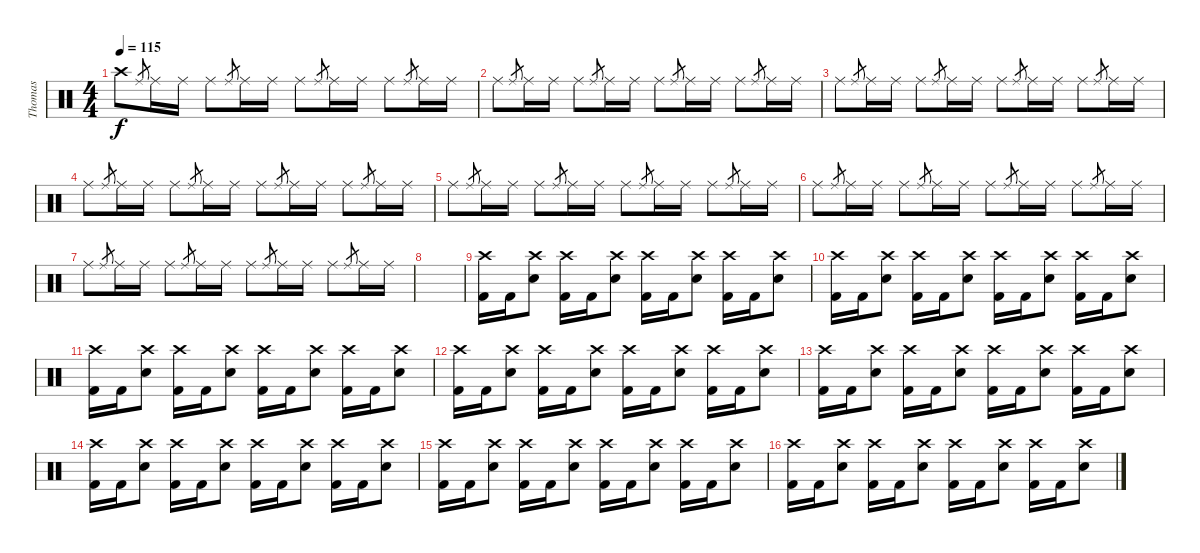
\track ("Thomas" "Thomas") {instrument percussion}
\staff {score}
\articulation defaults
\ts (4 4)
\tempo 115
\clef neutral
\ks c "Crash high (hit)".8{dy f} "Ride (middle)".8{gr} "Ride (middle)".16 "Ride (middle)".16 "Ride (middle)".8 "Ride (middle)".8{gr} "Ride (middle)".16 "Ride (middle)".16 "Ride (middle)".8 "Ride (middle)".8{gr} "Ride (middle)".16 "Ride (middle)".16 "Ride (middle)".8 "Ride (middle)".8{gr} "Ride (middle)".16 "Ride (middle)".16
|
"Ride (middle)".8 "Ride (middle)".8{gr} "Ride (middle)".16 "Ride (middle)".16 "Ride (middle)".8 "Ride (middle)".8{gr} "Ride (middle)".16 "Ride (middle)".16 "Ride (middle)".8 "Ride (middle)".8{gr} "Ride (middle)".16 "Ride (middle)".16 "Ride (middle)".8 "Ride (middle)".8{gr} "Ride (middle)".16 "Ride (middle)".16 |
"Ride (middle)".8 "Ride (middle)".8{gr} "Ride (middle)".16 "Ride (middle)".16 "Ride (middle)".8 "Ride (middle)".8{gr} "Ride (middle)".16 "Ride (middle)".16 "Ride (middle)".8 "Ride (middle)".8{gr} "Ride (middle)".16 "Ride (middle)".16 "Ride (middle)".8 "Ride (middle)".8{gr} "Ride (middle)".16 "Ride (middle)".16 |
"Ride (middle)".8 "Ride (middle)".8{gr} "Ride (middle)".16 "Ride (middle)".16 "Ride (middle)".8 "Ride (middle)".8{gr} "Ride (middle)".16 "Ride (middle)".16 "Ride (middle)".8 "Ride (middle)".8{gr} "Ride (middle)".16 "Ride (middle)".16 "Ride (middle)".8 "Ride (middle)".8{gr} "Ride (middle)".16 "Ride (middle)".16 |
"Ride (middle)".8 "Ride (middle)".8{gr} "Ride (middle)".16 "Ride (middle)".16 "Ride (middle)".8 "Ride (middle)".8{gr} "Ride (middle)".16 "Ride (middle)".16 "Ride (middle)".8 "Ride (middle)".8{gr} "Ride (middle)".16 "Ride (middle)".16 "Ride (middle)".8 "Ride (middle)".8{gr} "Ride (middle)".16 "Ride (middle)".16 |
"Ride (middle)".8 "Ride (middle)".8{gr} "Ride (middle)".16 "Ride (middle)".16 "Ride (middle)".8 "Ride (middle)".8{gr} "Ride (middle)".16 "Ride (middle)".16 "Ride (middle)".8 "Ride (middle)".8{gr} "Ride (middle)".16 "Ride (middle)".16 "Ride (middle)".8 "Ride (middle)".8{gr} "Ride (middle)".16 "Ride (middle)".16 |
"Ride (middle)".8 "Ride (middle)".8{gr} "Ride (middle)".16 "Ride (middle)".16 "Ride (middle)".8 "Ride (middle)".8{gr} "Ride (middle)".16 "Ride (middle)".16 "Ride (middle)".8 "Ride (middle)".8{gr} "Ride (middle)".16 "Ride (middle)".16 "Ride (middle)".8 "Ride (middle)".8{gr} "Ride (middle)".16 "Ride (middle)".16 |
|
("Crash high (hit)" "Kick (hit) 2").16 "Kick (hit) 2".16 ("Crash high (hit)" "Electric Snare (hit)").8 ("Crash high (hit)" "Kick (hit) 2").16 "Kick (hit) 2".16 ("Crash high (hit)" "Electric Snare (hit)").8 ("Crash high (hit)" "Kick (hit) 2").16 "Kick (hit) 2".16 ("Crash high (hit)" "Electric Snare (hit)").8 ("Crash high (hit)" "Kick (hit) 2").16 "Kick (hit) 2".16 ("Crash high (hit)" "Electric Snare (hit)").8 |
("Crash high (hit)" "Kick (hit) 2").16 "Kick (hit) 2".16 ("Crash high (hit)" "Electric Snare (hit)").8 ("Crash high (hit)" "Kick (hit) 2").16 "Kick (hit) 2".16 ("Crash high (hit)" "Electric Snare (hit)").8 ("Crash high (hit)" "Kick (hit) 2").16 "Kick (hit) 2".16 ("Crash high (hit)" "Electric Snare (hit)").8 ("Crash high (hit)" "Kick (hit) 2").16 "Kick (hit) 2".16 ("Crash high (hit)" "Electric Snare (hit)").8 |
("Crash high (hit)" "Kick (hit) 2").16 "Kick (hit) 2".16 ("Crash high (hit)" "Electric Snare (hit)").8 ("Crash high (hit)" "Kick (hit) 2").16 "Kick (hit) 2".16 ("Crash high (hit)" "Electric Snare (hit)").8 ("Crash high (hit)" "Kick (hit) 2").16 "Kick (hit) 2".16 ("Crash high (hit)" "Electric Snare (hit)").8 ("Crash high (hit)" "Kick (hit) 2").16 "Kick (hit) 2".16 ("Crash high (hit)" "Electric Snare (hit)").8 |
("Crash high (hit)" "Kick (hit) 2").16 "Kick (hit) 2".16 ("Crash high (hit)" "Electric Snare (hit)").8 ("Crash high (hit)" "Kick (hit) 2").16 "Kick (hit) 2".16 ("Crash high (hit)" "Electric Snare (hit)").8 ("Crash high (hit)" "Kick (hit) 2").16 "Kick (hit) 2".16 ("Crash high (hit)" "Electric Snare (hit)").8 ("Crash high (hit)" "Kick (hit) 2").16 "Kick (hit) 2".16 ("Crash high (hit)" "Electric Snare (hit)").8 |
("Crash high (hit)" "Kick (hit) 2").16 "Kick (hit) 2".16 ("Crash high (hit)" "Electric Snare (hit)").8 ("Crash high (hit)" "Kick (hit) 2").16 "Kick (hit) 2".16 ("Crash high (hit)" "Electric Snare (hit)").8 ("Crash high (hit)" "Kick (hit) 2").16 "Kick (hit) 2".16 ("Crash high (hit)" "Electric Snare (hit)").8 ("Crash high (hit)" "Kick (hit) 2").16 "Kick (hit) 2".16 ("Crash high (hit)" "Electric Snare (hit)").8 |
("Crash high (hit)" "Kick (hit) 2").16 "Kick (hit) 2".16 ("Crash high (hit)" "Electric Snare (hit)").8 ("Crash high (hit)" "Kick (hit) 2").16 "Kick (hit) 2".16 ("Crash high (hit)" "Electric Snare (hit)").8 ("Crash high (hit)" "Kick (hit) 2").16 "Kick (hit) 2".16 ("Crash high (hit)" "Electric Snare (hit)").8 ("Crash high (hit)" "Kick (hit) 2").16 "Kick (hit) 2".16 ("Crash high (hit)" "Electric Snare (hit)").8 |
("Crash high (hit)" "Kick (hit) 2").16 "Kick (hit) 2".16 ("Crash high (hit)" "Electric Snare (hit)").8 ("Crash high (hit)" "Kick (hit) 2").16 "Kick (hit) 2".16 ("Crash high (hit)" "Electric Snare (hit)").8 ("Crash high (hit)" "Kick (hit) 2").16 "Kick (hit) 2".16 ("Crash high (hit)" "Electric Snare (hit)").8 ("Crash high (hit)" "Kick (hit) 2").16 "Kick (hit) 2".16 ("Crash high (hit)" "Electric Snare (hit)").8 |
("Crash high (hit)" "Kick (hit) 2").16 "Kick (hit) 2".16 ("Crash high (hit)" "Electric Snare (hit)").8 ("Crash high (hit)" "Kick (hit) 2").16 "Kick (hit) 2".16 ("Crash high (hit)" "Electric Snare (hit)").8 ("Crash high (hit)" "Kick (hit) 2").16 "Kick (hit) 2".16 ("Crash high (hit)" "Electric Snare (hit)").8 ("Crash high (hit)" "Kick (hit) 2").16 "Kick (hit) 2".16 ("Crash high (hit)" "Electric Snare (hit)").8
